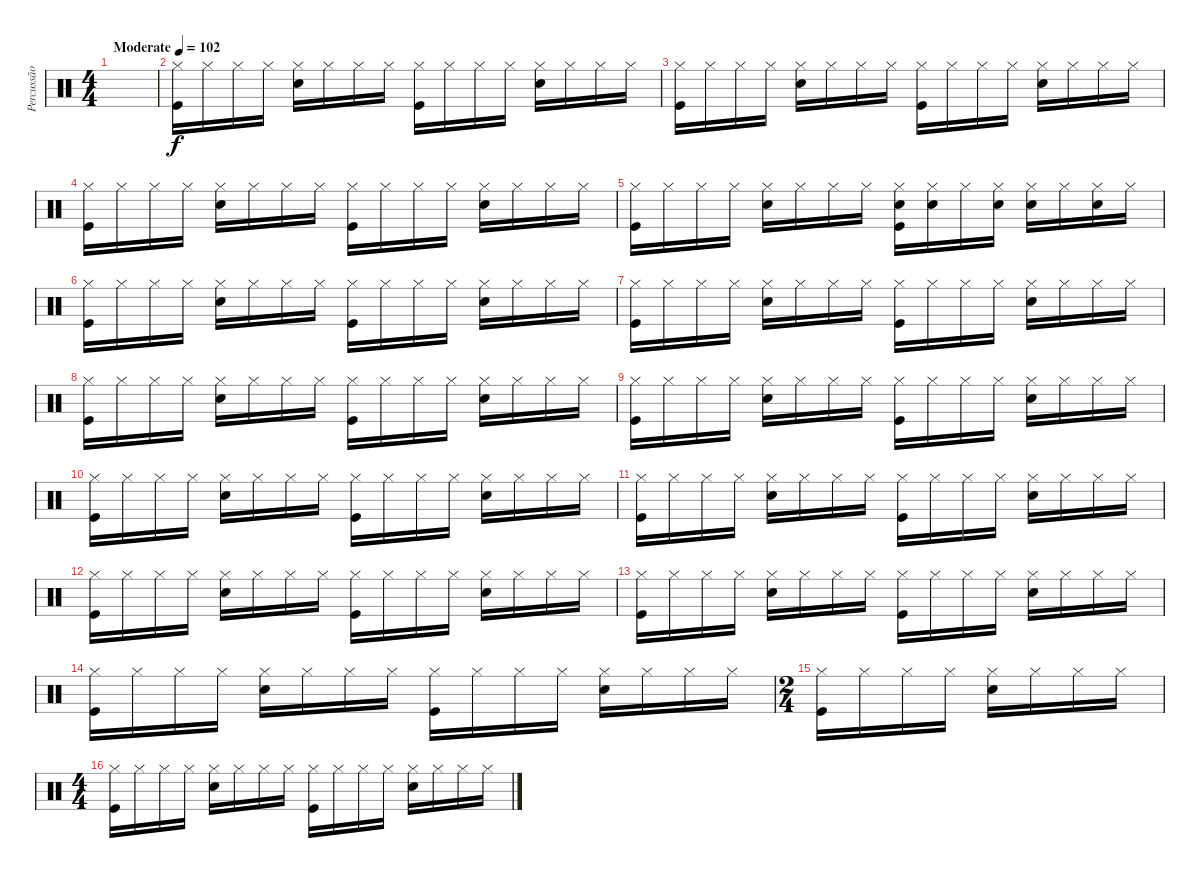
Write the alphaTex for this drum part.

\track ("Percussão" "Percussão") {instrument percussion}
\staff {score}
\articulation defaults
\ts (4 4)
\tempo (102 "Moderate")
\clef neutral
\ks c
|
("Hi-Hat (closed)" "Kick (hit)").16 "Hi-Hat (closed)".16 "Hi-Hat (closed)".16 "Hi-Hat (closed)".16 ("Hi-Hat (closed)" "Snare (hit) 2").16 "Hi-Hat (closed)".16 "Hi-Hat (closed)".16 "Hi-Hat (closed)".16 ("Hi-Hat (closed)" "Kick (hit)").16 "Hi-Hat (closed)".16 "Hi-Hat (closed)".16 "Hi-Hat (closed)".16 ("Hi-Hat (closed)" "Snare (hit) 2").16 "Hi-Hat (closed)".16 "Hi-Hat (closed)".16 "Hi-Hat (closed)".16 |
("Hi-Hat (closed)" "Kick (hit)").16 "Hi-Hat (closed)".16 "Hi-Hat (closed)".16 "Hi-Hat (closed)".16 ("Hi-Hat (closed)" "Snare (hit) 2").16 "Hi-Hat (closed)".16 "Hi-Hat (closed)".16 "Hi-Hat (closed)".16 ("Hi-Hat (closed)" "Kick (hit)").16 "Hi-Hat (closed)".16 "Hi-Hat (closed)".16 "Hi-Hat (closed)".16 ("Hi-Hat (closed)" "Snare (hit) 2").16 "Hi-Hat (closed)".16 "Hi-Hat (closed)".16 "Hi-Hat (closed)".16 |
("Hi-Hat (closed)" "Kick (hit)").16 "Hi-Hat (closed)".16 "Hi-Hat (closed)".16 "Hi-Hat (closed)".16 ("Hi-Hat (closed)" "Snare (hit) 2").16 "Hi-Hat (closed)".16 "Hi-Hat (closed)".16 "Hi-Hat (closed)".16 ("Hi-Hat (closed)" "Kick (hit)").16 "Hi-Hat (closed)".16 "Hi-Hat (closed)".16 "Hi-Hat (closed)".16 ("Hi-Hat (closed)" "Snare (hit) 2").16 "Hi-Hat (closed)".16 "Hi-Hat (closed)".16 "Hi-Hat (closed)".16 |
("Hi-Hat (closed)" "Kick (hit)").16 "Hi-Hat (closed)".16 "Hi-Hat (closed)".16 "Hi-Hat (closed)".16 ("Hi-Hat (closed)" "Snare (hit) 2").16 "Hi-Hat (closed)".16 "Hi-Hat (closed)".16 "Hi-Hat (closed)".16 ("Hi-Hat (closed)" "Kick (hit)" "Snare (hit) 2").16 ("Hi-Hat (closed)" "Snare (hit) 2").16 "Hi-Hat (closed)".16 ("Hi-Hat (closed)" "Snare (hit) 2").16 ("Hi-Hat (closed)" "Snare (hit) 2").16 "Hi-Hat (closed)".16 ("Hi-Hat (closed)" "Snare (hit) 2").16 "Hi-Hat (closed)".16 |
("Hi-Hat (closed)" "Kick (hit)").16 "Hi-Hat (closed)".16 "Hi-Hat (closed)".16 "Hi-Hat (closed)".16 ("Hi-Hat (closed)" "Snare (hit) 2").16 "Hi-Hat (closed)".16 "Hi-Hat (closed)".16 "Hi-Hat (closed)".16 ("Hi-Hat (closed)" "Kick (hit)").16 "Hi-Hat (closed)".16 "Hi-Hat (closed)".16 "Hi-Hat (closed)".16 ("Hi-Hat (closed)" "Snare (hit) 2").16 "Hi-Hat (closed)".16 "Hi-Hat (closed)".16 "Hi-Hat (closed)".16 |
("Hi-Hat (closed)" "Kick (hit)").16 "Hi-Hat (closed)".16 "Hi-Hat (closed)".16 "Hi-Hat (closed)".16 ("Hi-Hat (closed)" "Snare (hit) 2").16 "Hi-Hat (closed)".16 "Hi-Hat (closed)".16 "Hi-Hat (closed)".16 ("Hi-Hat (closed)" "Kick (hit)").16 "Hi-Hat (closed)".16 "Hi-Hat (closed)".16 "Hi-Hat (closed)".16 ("Hi-Hat (closed)" "Snare (hit) 2").16 "Hi-Hat (closed)".16 "Hi-Hat (closed)".16 "Hi-Hat (closed)".16 |
("Hi-Hat (closed)" "Kick (hit)").16 "Hi-Hat (closed)".16 "Hi-Hat (closed)".16 "Hi-Hat (closed)".16 ("Hi-Hat (closed)" "Snare (hit) 2").16 "Hi-Hat (closed)".16 "Hi-Hat (closed)".16 "Hi-Hat (closed)".16 ("Hi-Hat (closed)" "Kick (hit)").16 "Hi-Hat (closed)".16 "Hi-Hat (closed)".16 "Hi-Hat (closed)".16 ("Hi-Hat (closed)" "Snare (hit) 2").16 "Hi-Hat (closed)".16 "Hi-Hat (closed)".16 "Hi-Hat (closed)".16 |
("Hi-Hat (closed)" "Kick (hit)").16 "Hi-Hat (closed)".16 "Hi-Hat (closed)".16 "Hi-Hat (closed)".16 ("Hi-Hat (closed)" "Snare (hit) 2").16 "Hi-Hat (closed)".16 "Hi-Hat (closed)".16 "Hi-Hat (closed)".16 ("Hi-Hat (closed)" "Kick (hit)").16 "Hi-Hat (closed)".16 "Hi-Hat (closed)".16 "Hi-Hat (closed)".16 ("Hi-Hat (closed)" "Snare (hit) 2").16 "Hi-Hat (closed)".16 "Hi-Hat (closed)".16 "Hi-Hat (closed)".16 |
("Hi-Hat (closed)" "Kick (hit)").16 "Hi-Hat (closed)".16 "Hi-Hat (closed)".16 "Hi-Hat (closed)".16 ("Hi-Hat (closed)" "Snare (hit) 2").16 "Hi-Hat (closed)".16 "Hi-Hat (closed)".16 "Hi-Hat (closed)".16 ("Hi-Hat (closed)" "Kick (hit)").16 "Hi-Hat (closed)".16 "Hi-Hat (closed)".16 "Hi-Hat (closed)".16 ("Hi-Hat (closed)" "Snare (hit) 2").16 "Hi-Hat (closed)".16 "Hi-Hat (closed)".16 "Hi-Hat (closed)".16 |
("Hi-Hat (closed)" "Kick (hit)").16 "Hi-Hat (closed)".16 "Hi-Hat (closed)".16 "Hi-Hat (closed)".16 ("Hi-Hat (closed)" "Snare (hit) 2").16 "Hi-Hat (closed)".16 "Hi-Hat (closed)".16 "Hi-Hat (closed)".16 ("Hi-Hat (closed)" "Kick (hit)").16 "Hi-Hat (closed)".16 "Hi-Hat (closed)".16 "Hi-Hat (closed)".16 ("Hi-Hat (closed)" "Snare (hit) 2").16 "Hi-Hat (closed)".16 "Hi-Hat (closed)".16 "Hi-Hat (closed)".16 |
("Hi-Hat (closed)" "Kick (hit)").16 "Hi-Hat (closed)".16 "Hi-Hat (closed)".16 "Hi-Hat (closed)".16 ("Hi-Hat (closed)" "Snare (hit) 2").16 "Hi-Hat (closed)".16 "Hi-Hat (closed)".16 "Hi-Hat (closed)".16 ("Hi-Hat (closed)" "Kick (hit)").16 "Hi-Hat (closed)".16 "Hi-Hat (closed)".16 "Hi-Hat (closed)".16 ("Hi-Hat (closed)" "Snare (hit) 2").16 "Hi-Hat (closed)".16 "Hi-Hat (closed)".16 "Hi-Hat (closed)".16 |
("Hi-Hat (closed)" "Kick (hit)").16 "Hi-Hat (closed)".16 "Hi-Hat (closed)".16 "Hi-Hat (closed)".16 ("Hi-Hat (closed)" "Snare (hit) 2").16 "Hi-Hat (closed)".16 "Hi-Hat (closed)".16 "Hi-Hat (closed)".16 ("Hi-Hat (closed)" "Kick (hit)").16 "Hi-Hat (closed)".16 "Hi-Hat (closed)".16 "Hi-Hat (closed)".16 ("Hi-Hat (closed)" "Snare (hit) 2").16 "Hi-Hat (closed)".16 "Hi-Hat (closed)".16 "Hi-Hat (closed)".16 |
("Hi-Hat (closed)" "Kick (hit)").16 "Hi-Hat (closed)".16 "Hi-Hat (closed)".16 "Hi-Hat (closed)".16 ("Hi-Hat (closed)" "Snare (hit) 2").16 "Hi-Hat (closed)".16 "Hi-Hat (closed)".16 "Hi-Hat (closed)".16 ("Hi-Hat (closed)" "Kick (hit)").16 "Hi-Hat (closed)".16 "Hi-Hat (closed)".16 "Hi-Hat (closed)".16 ("Hi-Hat (closed)" "Snare (hit) 2").16 "Hi-Hat (closed)".16 "Hi-Hat (closed)".16 "Hi-Hat (closed)".16 |
\ts (2 4)
("Hi-Hat (closed)" "Kick (hit)").16 "Hi-Hat (closed)".16 "Hi-Hat (closed)".16 "Hi-Hat (closed)".16 ("Hi-Hat (closed)" "Snare (hit) 2").16 "Hi-Hat (closed)".16 "Hi-Hat (closed)".16 "Hi-Hat (closed)".16 |
\ts (4 4)
("Hi-Hat (closed)" "Kick (hit)").16 "Hi-Hat (closed)".16 "Hi-Hat (closed)".16 "Hi-Hat (closed)".16 ("Hi-Hat (closed)" "Snare (hit) 2").16 "Hi-Hat (closed)".16 "Hi-Hat (closed)".16 "Hi-Hat (closed)".16 ("Hi-Hat (closed)" "Kick (hit)").16 "Hi-Hat (closed)".16 "Hi-Hat (closed)".16 "Hi-Hat (closed)".16 ("Hi-Hat (closed)" "Snare (hit) 2").16 "Hi-Hat (closed)".16 "Hi-Hat (closed)".16 "Hi-Hat (closed)".16
